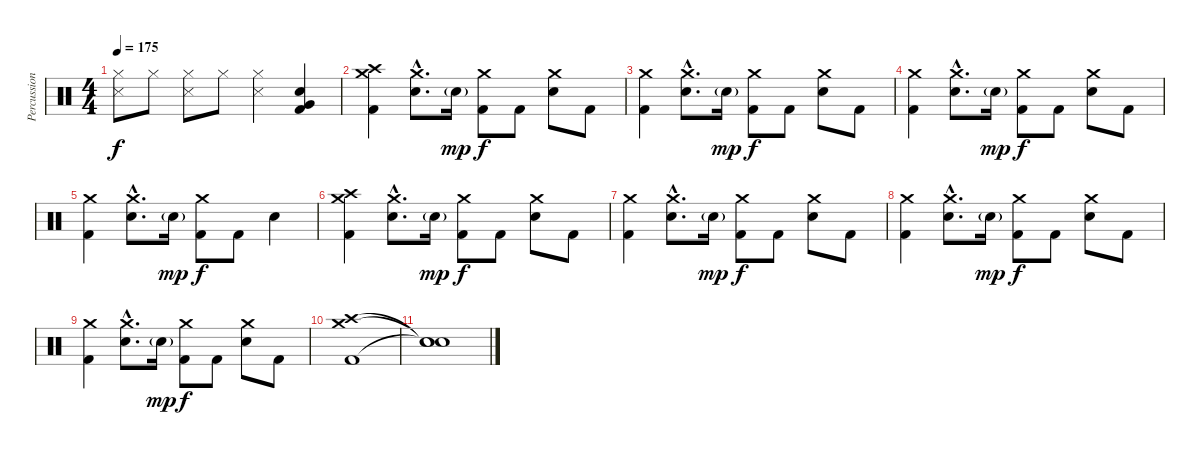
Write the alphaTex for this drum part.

\track ("Percussions" "Percussion") {instrument percussion}
\staff {score}
\articulation defaults
\ts (4 4)
\tempo 175
\clef neutral
\ks c
("Hi-Hat (closed)" "Snare (side stick) 3").8{dy f} "Hi-Hat (closed)".8 ("Hi-Hat (closed)" "Snare (side stick) 3").8 "Hi-Hat (closed)".8 ("Hi-Hat (closed)" "Snare (side stick) 3").4 ("Very Low Tom (hit)" "Electric Snare (hit)" "Kick (hit) 2").4 |
("Crash medium (hit)" "Crash high (hit)" "Kick (hit) 2").4 ("Crash medium (hit)"{hac} "Electric Snare (hit)"{hac}).8{d} "Electric Snare (hit)"{g}.16{dy mp} ("Crash medium (hit)" "Kick (hit) 2").8{dy f} "Kick (hit) 2".8 ("Crash medium (hit)" "Electric Snare (hit)").8 "Kick (hit) 2".8 |
("Crash medium (hit)" "Kick (hit) 2").4 ("Crash medium (hit)"{hac} "Electric Snare (hit)"{hac}).8{d} "Electric Snare (hit)"{g}.16{dy mp} ("Crash medium (hit)" "Kick (hit) 2").8{dy f} "Kick (hit) 2".8 ("Crash medium (hit)" "Electric Snare (hit)").8 "Kick (hit) 2".8 |
("Crash medium (hit)" "Kick (hit) 2").4 ("Crash medium (hit)"{hac} "Electric Snare (hit)"{hac}).8{d} "Electric Snare (hit)"{g}.16{dy mp} ("Crash medium (hit)" "Kick (hit) 2").8{dy f} "Kick (hit) 2".8 ("Crash medium (hit)" "Electric Snare (hit)").8 "Kick (hit) 2".8 |
("Crash medium (hit)" "Kick (hit) 2").4 ("Crash medium (hit)"{hac} "Electric Snare (hit)"{hac}).8{d} "Electric Snare (hit)"{g}.16{dy mp} ("Crash medium (hit)" "Kick (hit) 2").8{dy f} "Kick (hit) 2".8 "Electric Snare (hit)".4 |
("Crash medium (hit)" "Crash high (hit)" "Kick (hit) 2").4 ("Crash medium (hit)"{hac} "Electric Snare (hit)"{hac}).8{d} "Electric Snare (hit)"{g}.16{dy mp} ("Crash medium (hit)" "Kick (hit) 2").8{dy f} "Kick (hit) 2".8 ("Crash medium (hit)" "Electric Snare (hit)").8 "Kick (hit) 2".8 |
("Crash medium (hit)" "Kick (hit) 2").4 ("Crash medium (hit)"{hac} "Electric Snare (hit)"{hac}).8{d} "Electric Snare (hit)"{g}.16{dy mp} ("Crash medium (hit)" "Kick (hit) 2").8{dy f} "Kick (hit) 2".8 ("Crash medium (hit)" "Electric Snare (hit)").8 "Kick (hit) 2".8 |
("Crash medium (hit)" "Kick (hit) 2").4 ("Crash medium (hit)"{hac} "Electric Snare (hit)"{hac}).8{d} "Electric Snare (hit)"{g}.16{dy mp} ("Crash medium (hit)" "Kick (hit) 2").8{dy f} "Kick (hit) 2".8 ("Crash medium (hit)" "Electric Snare (hit)").8 "Kick (hit) 2".8 |
("Crash medium (hit)" "Kick (hit) 2").4 ("Crash medium (hit)"{hac} "Electric Snare (hit)"{hac}).8{d} "Electric Snare (hit)"{g}.16{dy mp} ("Crash medium (hit)" "Kick (hit) 2").8{dy f} "Kick (hit) 2".8 ("Crash medium (hit)" "Electric Snare (hit)").8 "Kick (hit) 2".8 |
("Crash medium (hit)" "Crash high (hit)" "Kick (hit) 2").1 |
("Snare (hit)"{t} "Snare (hit)"{t} "Snare (hit)"{t}).1
